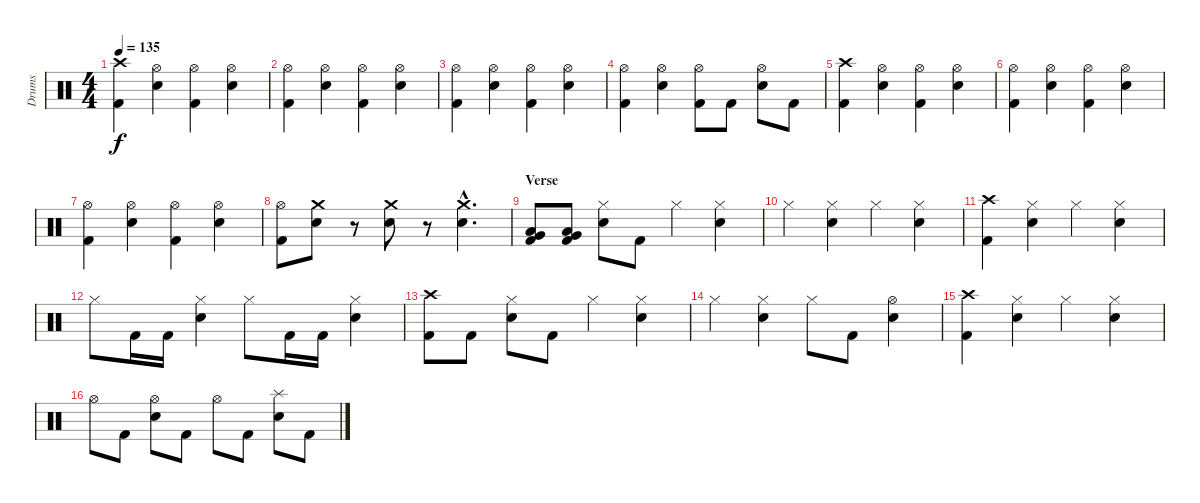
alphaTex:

\track ("Drums" "Drums") {instrument percussion}
\staff {score}
\articulation defaults
\ts (4 4)
\tempo 135
\clef neutral
\ks c
("Crash high (hit)" "Kick (hit) 2").4{dy f} ("Hi-Hat (open)" "Snare (hit) 2").4 ("Hi-Hat (open)" "Kick (hit) 2").4 ("Hi-Hat (open)" "Snare (hit) 2").4 |
("Hi-Hat (open)" "Kick (hit) 2").4 ("Hi-Hat (open)" "Snare (hit) 2").4 ("Hi-Hat (open)" "Kick (hit) 2").4 ("Hi-Hat (open)" "Snare (hit) 2").4 |
("Hi-Hat (open)" "Kick (hit) 2").4 ("Hi-Hat (open)" "Snare (hit) 2").4 ("Hi-Hat (open)" "Kick (hit) 2").4 ("Hi-Hat (open)" "Snare (hit) 2").4 |
("Hi-Hat (open)" "Kick (hit) 2").4 ("Hi-Hat (open)" "Snare (hit) 2").4 ("Hi-Hat (open)" "Kick (hit) 2").8 "Kick (hit) 2".8 ("Hi-Hat (open)" "Snare (hit) 2").8 "Kick (hit) 2".8 |
("Crash high (hit)" "Kick (hit) 2").4 ("Hi-Hat (open)" "Snare (hit) 2").4 ("Hi-Hat (open)" "Kick (hit) 2").4 ("Hi-Hat (open)" "Snare (hit) 2").4 |
("Hi-Hat (open)" "Kick (hit) 2").4 ("Hi-Hat (open)" "Snare (hit) 2").4 ("Hi-Hat (open)" "Kick (hit) 2").4 ("Hi-Hat (open)" "Snare (hit) 2").4 |
("Hi-Hat (open)" "Kick (hit) 2").4 ("Hi-Hat (open)" "Snare (hit) 2").4 ("Hi-Hat (open)" "Kick (hit) 2").4 ("Hi-Hat (open)" "Snare (hit) 2").4 |
("Hi-Hat (open)" "Kick (hit) 2").8 ("Crash medium (hit)" "Snare (hit) 2").8 r.8 ("Crash medium (hit)" "Snare (hit) 2").8 r.8 ("Crash medium (hit)"{hac} "Snare (hit) 2"{hac}).4{d} |
\section ("" "Verse")
("Very Low Tom (hit)" "Low Tom (hit)" "Kick (hit) 2").8 ("Very Low Tom (hit)" "Low Tom (hit)" "Kick (hit) 2").8 ("Hi-Hat (closed)" "Snare (hit) 2").8 "Kick (hit) 2".8 "Hi-Hat (closed)".4 ("Hi-Hat (closed)" "Snare (hit) 2").4 |
"Hi-Hat (closed)".4 ("Hi-Hat (closed)" "Snare (hit) 2").4 "Hi-Hat (closed)".4 ("Hi-Hat (closed)" "Snare (hit) 2").4 |
("Crash high (hit)" "Kick (hit) 2").4 ("Hi-Hat (closed)" "Snare (hit) 2").4 "Hi-Hat (closed)".4 ("Hi-Hat (closed)" "Snare (hit) 2").4 |
"Hi-Hat (closed)".8 "Kick (hit) 2".16 "Kick (hit) 2".16 ("Hi-Hat (closed)" "Snare (hit) 2").4 "Hi-Hat (closed)".8 "Kick (hit) 2".16 "Kick (hit) 2".16 ("Hi-Hat (closed)" "Snare (hit) 2").4 |
("Crash high (hit)" "Kick (hit) 2").8 "Kick (hit) 2".8 ("Hi-Hat (closed)" "Snare (hit) 2").8 "Kick (hit) 2".8 "Hi-Hat (closed)".4 ("Hi-Hat (closed)" "Snare (hit) 2").4 |
"Hi-Hat (closed)".4 ("Hi-Hat (closed)" "Snare (hit) 2").4 "Hi-Hat (closed)".8 "Kick (hit) 2".8 ("Hi-Hat (open)" "Snare (hit) 2").4 |
("Crash high (hit)" "Kick (hit) 2").4 ("Hi-Hat (closed)" "Snare (hit) 2").4 "Hi-Hat (closed)".4 ("Hi-Hat (closed)" "Snare (hit) 2").4 |
"Hi-Hat (open)".8 "Kick (hit) 2".8 ("Hi-Hat (open)" "Snare (hit) 2").8 "Kick (hit) 2".8 "Hi-Hat (open)".8 "Kick (hit) 2".8 ("Splash (hit)" "Snare (hit) 2").8 "Kick (hit) 2".8
